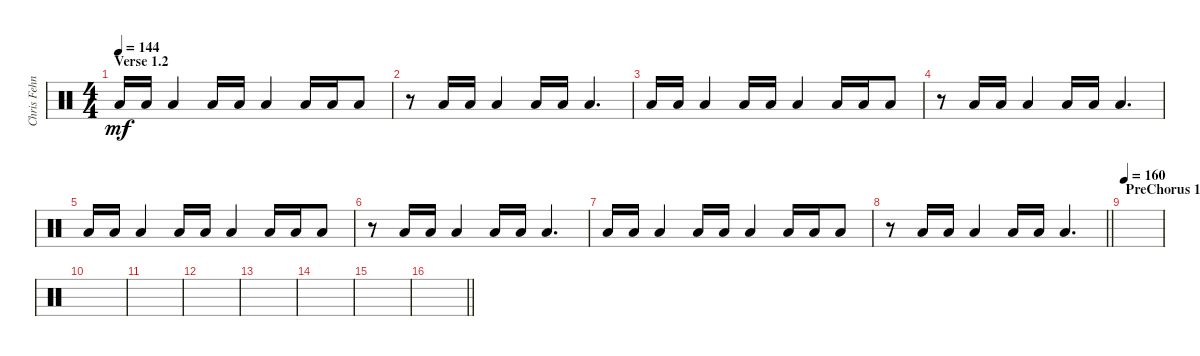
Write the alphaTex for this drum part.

\track ("Chris Fehn" "Chris Fehn") {instrument percussion}
\staff {score}
\articulation defaults
\ts (4 4)
\section ("" "Verse 1.2")
\tempo 144
\clef neutral
\ks c "Low Floor Tom (hit)".16{dy mf} "Low Floor Tom (hit)".16 "Low Floor Tom (hit)".4 "Low Floor Tom (hit)".16 "Low Floor Tom (hit)".16 "Low Floor Tom (hit)".4 "Low Floor Tom (hit)".16 "Low Floor Tom (hit)".16 "Low Floor Tom (hit)".8
|
r.8 "Low Floor Tom (hit)".16 "Low Floor Tom (hit)".16 "Low Floor Tom (hit)".4 "Low Floor Tom (hit)".16 "Low Floor Tom (hit)".16 "Low Floor Tom (hit)".4{d} |
"Low Floor Tom (hit)".16 "Low Floor Tom (hit)".16 "Low Floor Tom (hit)".4 "Low Floor Tom (hit)".16 "Low Floor Tom (hit)".16 "Low Floor Tom (hit)".4 "Low Floor Tom (hit)".16 "Low Floor Tom (hit)".16 "Low Floor Tom (hit)".8 |
r.8 "Low Floor Tom (hit)".16 "Low Floor Tom (hit)".16 "Low Floor Tom (hit)".4 "Low Floor Tom (hit)".16 "Low Floor Tom (hit)".16 "Low Floor Tom (hit)".4{d} |
"Low Floor Tom (hit)".16 "Low Floor Tom (hit)".16 "Low Floor Tom (hit)".4 "Low Floor Tom (hit)".16 "Low Floor Tom (hit)".16 "Low Floor Tom (hit)".4 "Low Floor Tom (hit)".16 "Low Floor Tom (hit)".16 "Low Floor Tom (hit)".8 |
r.8 "Low Floor Tom (hit)".16 "Low Floor Tom (hit)".16 "Low Floor Tom (hit)".4 "Low Floor Tom (hit)".16 "Low Floor Tom (hit)".16 "Low Floor Tom (hit)".4{d} |
"Low Floor Tom (hit)".16 "Low Floor Tom (hit)".16 "Low Floor Tom (hit)".4 "Low Floor Tom (hit)".16 "Low Floor Tom (hit)".16 "Low Floor Tom (hit)".4 "Low Floor Tom (hit)".16 "Low Floor Tom (hit)".16 "Low Floor Tom (hit)".8 |
\barLineRight lightlight
r.8 "Low Floor Tom (hit)".16 "Low Floor Tom (hit)".16 "Low Floor Tom (hit)".4 "Low Floor Tom (hit)".16 "Low Floor Tom (hit)".16 "Low Floor Tom (hit)".4{d} |
\section ("" "PreChorus 1.1")
\tempo 160
|
|
|
|
|
|
|
\barLineRight lightlight
